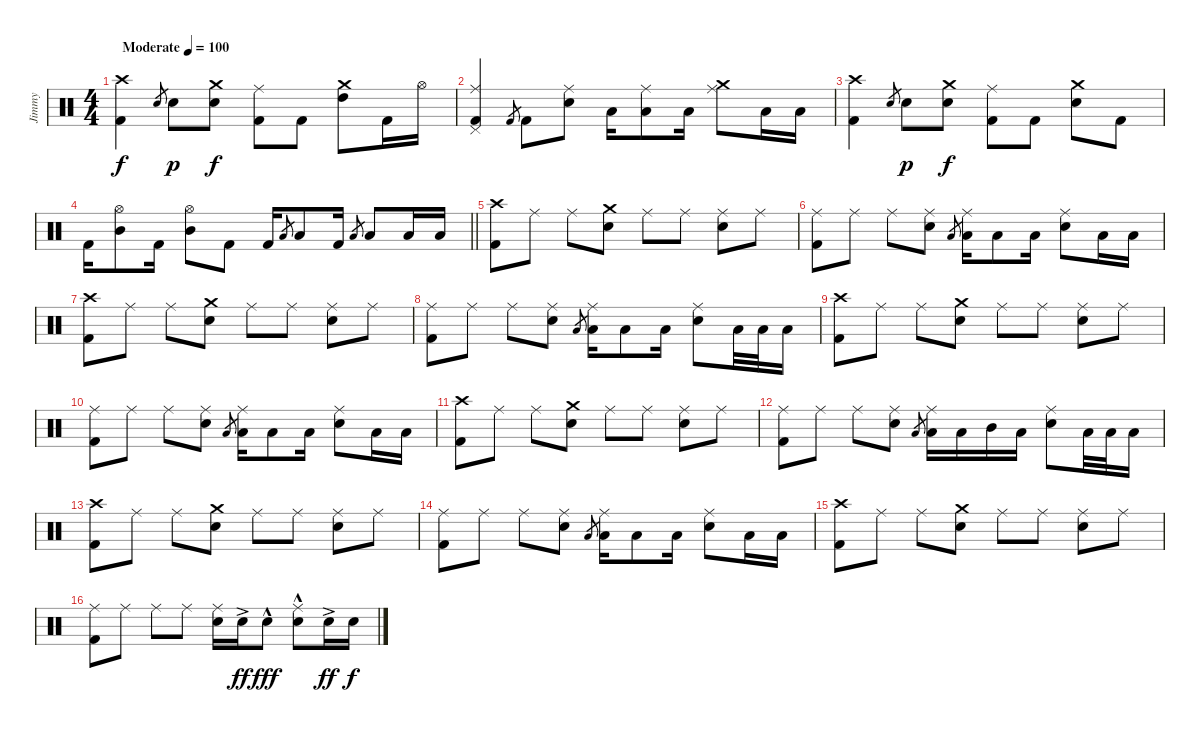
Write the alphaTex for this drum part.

\track ("Jimmy" "Jimmy") {instrument percussion}
\staff {score}
\articulation defaults
\ts (4 4)
\tempo (100 "Moderate")
\clef neutral
\ks c
("Crash high (hit)" "Kick (hit) 2").4{dy f} "Snare (hit) 2".8{gr} "Snare (hit) 2".8{dy p} ("Crash medium (hit)" "Snare (hit) 2").8{dy f} ("Ride (middle)" "Kick (hit) 2").8 "Kick (hit) 2".8 ("Crash medium (hit)" "High Tom (hit)").8 "Kick (hit) 2".16 "Hi-Hat (open)".16 |
("Ride (middle)" "Pedal Hi-Hat (hit)" "Kick (hit) 2").4 "Kick (hit) 2".8{gr} "Kick (hit) 2".8 ("Ride (middle)" "Snare (hit) 2").8 "Low Floor Tom (hit)".16 ("Ride (middle)" "Low Tom (hit)").8 "Low Floor Tom (hit)".16 ("Ride (middle)" "Crash medium (hit)").8 "Low Tom (hit)".16 "Low Tom (hit)".16 |
("Crash high (hit)" "Kick (hit) 2").4 "Snare (hit) 2".8{gr} "Snare (hit) 2".8{dy p} ("Crash medium (hit)" "Snare (hit) 2").8{dy f} ("Ride (middle)" "Kick (hit) 2").8 "Kick (hit) 2".8 ("Crash medium (hit)" "Snare (hit) 2").8 "Kick (hit) 2".8 |
\barLineRight lightlight "Kick (hit) 2".16
("Hi-Hat (open)" "Mid Tom (hit)").8 "Kick (hit) 2".16 ("Hi-Hat (open)" "Mid Tom (hit)").8 "Kick (hit) 2".8 "Kick (hit) 2".16 "Low Tom (hit)".8{gr} "Low Tom (hit)".8 "Kick (hit) 2".16 "Low Tom (hit)".8{gr} "Low Tom (hit)".8 "Low Floor Tom (hit)".16 "Low Floor Tom (hit)".16 |
("Crash high (hit)" "Kick (hit) 2").8 "Ride (middle)".8 "Ride (middle)".8 ("Crash medium (hit)" "Snare (hit) 2").8 "Ride (middle)".8 "Ride (middle)".8 ("Ride (middle)" "Snare (hit) 2").8 "Ride (middle)".8 |
("Ride (middle)" "Kick (hit) 2").8 "Ride (middle)".8 "Ride (middle)".8 ("Ride (middle)" "Snare (hit) 2").8 "Low Tom (hit)".8{gr} ("Ride (middle)" "Low Tom (hit)").16 "Low Tom (hit)".8 "Low Tom (hit)".16 ("Ride (middle)" "Snare (hit) 2").8 "Low Floor Tom (hit)".16 "Low Floor Tom (hit)".16 |
("Crash high (hit)" "Kick (hit) 2").8 "Ride (middle)".8 "Ride (middle)".8 ("Crash medium (hit)" "Snare (hit) 2").8 "Ride (middle)".8 "Ride (middle)".8 ("Ride (middle)" "Snare (hit) 2").8 "Ride (middle)".8 |
("Ride (middle)" "Kick (hit) 2").8 "Ride (middle)".8 "Ride (middle)".8 ("Ride (middle)" "Snare (hit) 2").8 "Low Tom (hit)".8{gr} ("Ride (middle)" "Low Tom (hit)").16 "Low Tom (hit)".8 "Low Tom (hit)".16 ("Ride (middle)" "Snare (hit) 2").8 "Low Floor Tom (hit)".32 "Low Floor Tom (hit)".32 "Low Floor Tom (hit)".16 |
("Crash high (hit)" "Kick (hit) 2").8 "Ride (middle)".8 "Ride (middle)".8 ("Crash medium (hit)" "Snare (hit) 2").8 "Ride (middle)".8 "Ride (middle)".8 ("Ride (middle)" "Snare (hit) 2").8 "Ride (middle)".8 |
("Ride (middle)" "Kick (hit) 2").8 "Ride (middle)".8 "Ride (middle)".8 ("Ride (middle)" "Snare (hit) 2").8 "Low Tom (hit)".8{gr} ("Ride (middle)" "Low Tom (hit)").16 "Low Tom (hit)".8 "Low Tom (hit)".16 ("Ride (middle)" "Snare (hit) 2").8 "Low Floor Tom (hit)".16 "Low Floor Tom (hit)".16 |
("Crash high (hit)" "Kick (hit) 2").8 "Ride (middle)".8 "Ride (middle)".8 ("Crash medium (hit)" "Snare (hit) 2").8 "Ride (middle)".8 "Ride (middle)".8 ("Ride (middle)" "Snare (hit) 2").8 "Ride (middle)".8 |
("Ride (middle)" "Kick (hit) 2").8 "Ride (middle)".8 "Ride (middle)".8 ("Ride (middle)" "Snare (hit) 2").8 "Low Tom (hit)".8{gr} ("Ride (middle)" "Low Tom (hit)").16 "Low Tom (hit)".16 "Mid Tom (hit)".16 "Low Tom (hit)".16 ("Ride (middle)" "Snare (hit) 2").8 "Low Floor Tom (hit)".32 "Low Floor Tom (hit)".32 "Low Floor Tom (hit)".16 |
("Crash high (hit)" "Kick (hit) 2").8 "Ride (middle)".8 "Ride (middle)".8 ("Crash medium (hit)" "Snare (hit) 2").8 "Ride (middle)".8 "Ride (middle)".8 ("Ride (middle)" "Snare (hit) 2").8 "Ride (middle)".8 |
("Ride (middle)" "Kick (hit) 2").8 "Ride (middle)".8 "Ride (middle)".8 ("Ride (middle)" "Snare (hit) 2").8 "Low Tom (hit)".8{gr} ("Ride (middle)" "Low Tom (hit)").16 "Low Tom (hit)".8 "Low Tom (hit)".16 ("Ride (middle)" "Snare (hit) 2").8 "Low Floor Tom (hit)".16 "Low Floor Tom (hit)".16 |
("Crash high (hit)" "Kick (hit) 2").8 "Ride (middle)".8 "Ride (middle)".8 ("Crash medium (hit)" "Snare (hit) 2").8 "Ride (middle)".8 "Ride (middle)".8 ("Ride (middle)" "Snare (hit) 2").8 "Ride (middle)".8 |
("Ride (middle)" "Kick (hit) 2").8 "Ride (middle)".8 "Ride (middle)".8 "Ride (middle)".8 ("Ride (middle)" "Snare (hit) 2").16 "Snare (hit) 2"{ac}.16{dy ff} "Snare (hit) 2"{hac}.8{dy fff} ("Ride (middle)" "Snare (hit) 2"{hac}).8 "Snare (hit) 2"{ac}.16{dy ff} "Snare (hit) 2".16{dy f}
